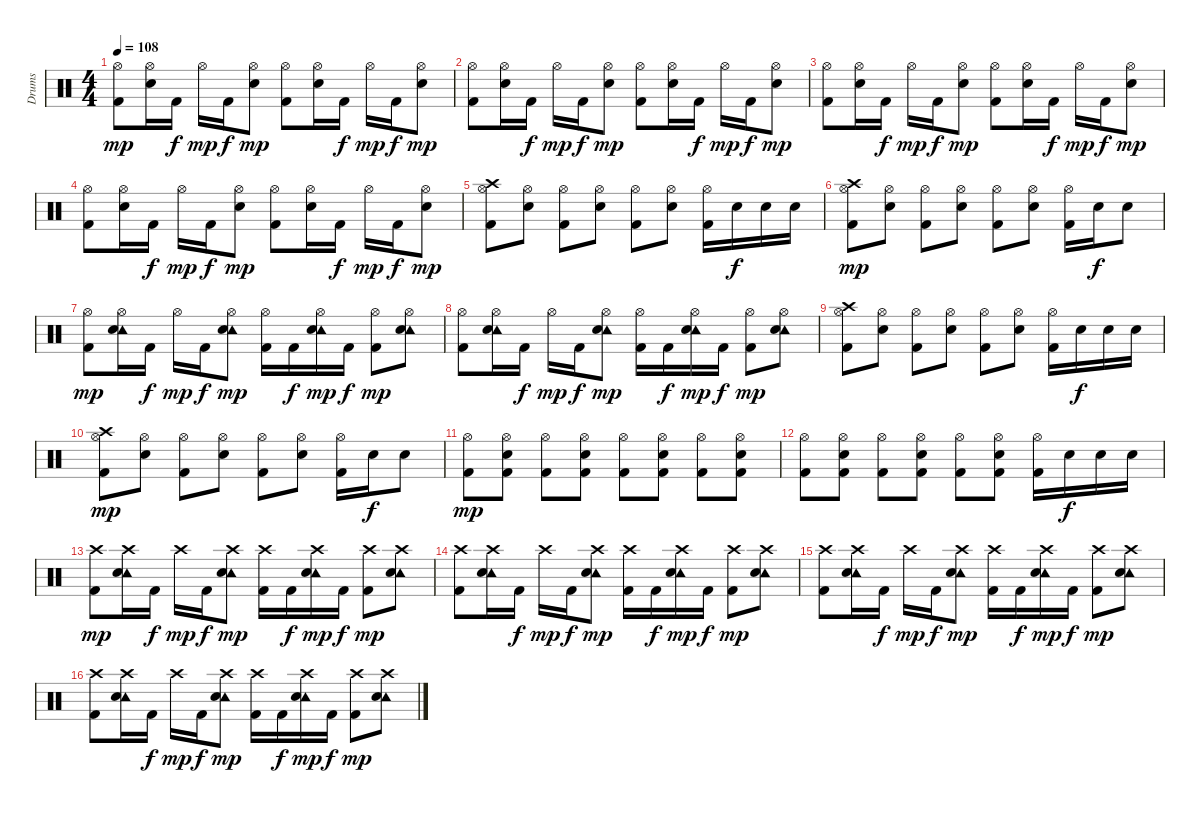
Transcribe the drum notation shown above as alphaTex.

\track ("Drums" "Drums") {instrument percussion}
\staff {score}
\articulation defaults
\ts (4 4)
\tempo 108
\clef neutral
\ks c
("Hi-Hat (open)" "Kick (hit) 2").8{dy mp} ("Hi-Hat (open)" "Snare (hit) 2").16 "Kick (hit) 2".16{dy f} "Hi-Hat (open)".16{dy mp} "Kick (hit) 2".16{dy f} ("Hi-Hat (open)" "Snare (hit) 2").8{dy mp} ("Hi-Hat (open)" "Kick (hit) 2").8 ("Hi-Hat (open)" "Snare (hit) 2").16 "Kick (hit) 2".16{dy f} "Hi-Hat (open)".16{dy mp} "Kick (hit) 2".16{dy f} ("Hi-Hat (open)" "Snare (hit) 2").8{dy mp} |
("Hi-Hat (open)" "Kick (hit) 2").8 ("Hi-Hat (open)" "Snare (hit) 2").16 "Kick (hit) 2".16{dy f} "Hi-Hat (open)".16{dy mp} "Kick (hit) 2".16{dy f} ("Hi-Hat (open)" "Snare (hit) 2").8{dy mp} ("Hi-Hat (open)" "Kick (hit) 2").8 ("Hi-Hat (open)" "Snare (hit) 2").16 "Kick (hit) 2".16{dy f} "Hi-Hat (open)".16{dy mp} "Kick (hit) 2".16{dy f} ("Hi-Hat (open)" "Snare (hit) 2").8{dy mp} |
("Hi-Hat (open)" "Kick (hit) 2").8 ("Hi-Hat (open)" "Snare (hit) 2").16 "Kick (hit) 2".16{dy f} "Hi-Hat (open)".16{dy mp} "Kick (hit) 2".16{dy f} ("Hi-Hat (open)" "Snare (hit) 2").8{dy mp} ("Hi-Hat (open)" "Kick (hit) 2").8 ("Hi-Hat (open)" "Snare (hit) 2").16 "Kick (hit) 2".16{dy f} "Hi-Hat (open)".16{dy mp} "Kick (hit) 2".16{dy f} ("Hi-Hat (open)" "Snare (hit) 2").8{dy mp} |
("Hi-Hat (open)" "Kick (hit) 2").8 ("Hi-Hat (open)" "Snare (hit) 2").16 "Kick (hit) 2".16{dy f} "Hi-Hat (open)".16{dy mp} "Kick (hit) 2".16{dy f} ("Hi-Hat (open)" "Snare (hit) 2").8{dy mp} ("Hi-Hat (open)" "Kick (hit) 2").8 ("Hi-Hat (open)" "Snare (hit) 2").16 "Kick (hit) 2".16{dy f} "Hi-Hat (open)".16{dy mp} "Kick (hit) 2".16{dy f} ("Hi-Hat (open)" "Snare (hit) 2").8{dy mp} |
("Crash high (hit)" "Hi-Hat (open)" "Kick (hit) 2").8 ("Hi-Hat (open)" "Snare (hit) 2").8 ("Hi-Hat (open)" "Kick (hit) 2").8 ("Hi-Hat (open)" "Snare (hit) 2").8 ("Hi-Hat (open)" "Kick (hit) 2").8 ("Hi-Hat (open)" "Snare (hit) 2").8 ("Hi-Hat (open)" "Kick (hit) 2").16 "Snare (hit) 2".16{dy f} "Snare (hit) 2".16 "Snare (hit) 2".16 |
("Crash high (hit)" "Hi-Hat (open)" "Kick (hit) 2").8{dy mp} ("Hi-Hat (open)" "Snare (hit) 2").8 ("Hi-Hat (open)" "Kick (hit) 2").8 ("Hi-Hat (open)" "Snare (hit) 2").8 ("Hi-Hat (open)" "Kick (hit) 2").8 ("Hi-Hat (open)" "Snare (hit) 2").8 ("Hi-Hat (open)" "Kick (hit) 2").16 "Snare (hit) 2".16{dy f} "Snare (hit) 2".8 |
("Hi-Hat (open)" "Kick (hit) 2").8{dy mp} ("Tambourine (hit)" "Hi-Hat (open)" "Snare (hit) 2").16 "Kick (hit) 2".16{dy f} "Hi-Hat (open)".16{dy mp} "Kick (hit) 2".16{dy f} ("Tambourine (hit)" "Hi-Hat (open)" "Snare (hit) 2").8{dy mp} ("Hi-Hat (open)" "Kick (hit) 2").16 "Kick (hit) 2".16{dy f} ("Tambourine (hit)" "Hi-Hat (open)" "Snare (hit) 2").16{dy mp} "Kick (hit) 2".16{dy f} ("Hi-Hat (open)" "Kick (hit) 2").8{dy mp} ("Tambourine (hit)" "Hi-Hat (open)" "Snare (hit) 2").8 |
("Hi-Hat (open)" "Kick (hit) 2").8 ("Tambourine (hit)" "Hi-Hat (open)" "Snare (hit) 2").16 "Kick (hit) 2".16{dy f} "Hi-Hat (open)".16{dy mp} "Kick (hit) 2".16{dy f} ("Tambourine (hit)" "Hi-Hat (open)" "Snare (hit) 2").8{dy mp} ("Hi-Hat (open)" "Kick (hit) 2").16 "Kick (hit) 2".16{dy f} ("Tambourine (hit)" "Hi-Hat (open)" "Snare (hit) 2").16{dy mp} "Kick (hit) 2".16{dy f} ("Hi-Hat (open)" "Kick (hit) 2").8{dy mp} ("Tambourine (hit)" "Hi-Hat (open)" "Snare (hit) 2").8 |
("Crash high (hit)" "Hi-Hat (open)" "Kick (hit) 2").8 ("Hi-Hat (open)" "Snare (hit) 2").8 ("Hi-Hat (open)" "Kick (hit) 2").8 ("Hi-Hat (open)" "Snare (hit) 2").8 ("Hi-Hat (open)" "Kick (hit) 2").8 ("Hi-Hat (open)" "Snare (hit) 2").8 ("Hi-Hat (open)" "Kick (hit) 2").16 "Snare (hit) 2".16{dy f} "Snare (hit) 2".16 "Snare (hit) 2".16 |
("Crash high (hit)" "Hi-Hat (open)" "Kick (hit) 2").8{dy mp} ("Hi-Hat (open)" "Snare (hit) 2").8 ("Hi-Hat (open)" "Kick (hit) 2").8 ("Hi-Hat (open)" "Snare (hit) 2").8 ("Hi-Hat (open)" "Kick (hit) 2").8 ("Hi-Hat (open)" "Snare (hit) 2").8 ("Hi-Hat (open)" "Kick (hit) 2").16 "Snare (hit) 2".16{dy f} "Snare (hit) 2".8 |
("Hi-Hat (open)" "Kick (hit) 2").8{dy mp} ("Snare (hit) 2" "Hi-Hat (open)" "Kick (hit) 2").8 ("Hi-Hat (open)" "Kick (hit) 2").8 ("Snare (hit) 2" "Hi-Hat (open)" "Kick (hit) 2").8 ("Hi-Hat (open)" "Kick (hit) 2").8 ("Snare (hit) 2" "Hi-Hat (open)" "Kick (hit) 2").8 ("Hi-Hat (open)" "Kick (hit) 2").8 ("Snare (hit) 2" "Hi-Hat (open)" "Kick (hit) 2").8 |
("Hi-Hat (open)" "Kick (hit) 2").8 ("Snare (hit) 2" "Hi-Hat (open)" "Kick (hit) 2").8 ("Hi-Hat (open)" "Kick (hit) 2").8 ("Snare (hit) 2" "Hi-Hat (open)" "Kick (hit) 2").8 ("Hi-Hat (open)" "Kick (hit) 2").8 ("Snare (hit) 2" "Hi-Hat (open)" "Kick (hit) 2").8 ("Hi-Hat (open)" "Kick (hit) 2").16 "Snare (hit) 2".16{dy f} "Snare (hit) 2".16 "Snare (hit) 2".16 |
("Crash high (hit)" "Kick (hit) 2").8{dy mp} ("Tambourine (hit)" "Crash high (hit)" "Snare (hit) 2").16 "Kick (hit) 2".16{dy f} "Crash high (hit)".16{dy mp} "Kick (hit) 2".16{dy f} ("Tambourine (hit)" "Crash high (hit)" "Snare (hit) 2").8{dy mp} ("Crash high (hit)" "Kick (hit) 2").16 "Kick (hit) 2".16{dy f} ("Tambourine (hit)" "Crash high (hit)" "Snare (hit) 2").16{dy mp} "Kick (hit) 2".16{dy f} ("Crash high (hit)" "Kick (hit) 2").8{dy mp} ("Tambourine (hit)" "Crash high (hit)" "Snare (hit) 2").8 |
("Crash high (hit)" "Kick (hit) 2").8 ("Tambourine (hit)" "Crash high (hit)" "Snare (hit) 2").16 "Kick (hit) 2".16{dy f} "Crash high (hit)".16{dy mp} "Kick (hit) 2".16{dy f} ("Tambourine (hit)" "Crash high (hit)" "Snare (hit) 2").8{dy mp} ("Crash high (hit)" "Kick (hit) 2").16 "Kick (hit) 2".16{dy f} ("Tambourine (hit)" "Crash high (hit)" "Snare (hit) 2").16{dy mp} "Kick (hit) 2".16{dy f} ("Crash high (hit)" "Kick (hit) 2").8{dy mp} ("Tambourine (hit)" "Crash high (hit)" "Snare (hit) 2").8 |
("Crash high (hit)" "Kick (hit) 2").8 ("Tambourine (hit)" "Crash high (hit)" "Snare (hit) 2").16 "Kick (hit) 2".16{dy f} "Crash high (hit)".16{dy mp} "Kick (hit) 2".16{dy f} ("Tambourine (hit)" "Crash high (hit)" "Snare (hit) 2").8{dy mp} ("Crash high (hit)" "Kick (hit) 2").16 "Kick (hit) 2".16{dy f} ("Tambourine (hit)" "Crash high (hit)" "Snare (hit) 2").16{dy mp} "Kick (hit) 2".16{dy f} ("Crash high (hit)" "Kick (hit) 2").8{dy mp} ("Tambourine (hit)" "Crash high (hit)" "Snare (hit) 2").8 |
("Crash high (hit)" "Kick (hit) 2").8 ("Tambourine (hit)" "Crash high (hit)" "Snare (hit) 2").16 "Kick (hit) 2".16{dy f} "Crash high (hit)".16{dy mp} "Kick (hit) 2".16{dy f} ("Tambourine (hit)" "Crash high (hit)" "Snare (hit) 2").8{dy mp} ("Crash high (hit)" "Kick (hit) 2").16 "Kick (hit) 2".16{dy f} ("Tambourine (hit)" "Crash high (hit)" "Snare (hit) 2").16{dy mp} "Kick (hit) 2".16{dy f} ("Crash high (hit)" "Kick (hit) 2").8{dy mp} ("Tambourine (hit)" "Crash high (hit)" "Snare (hit) 2").8
